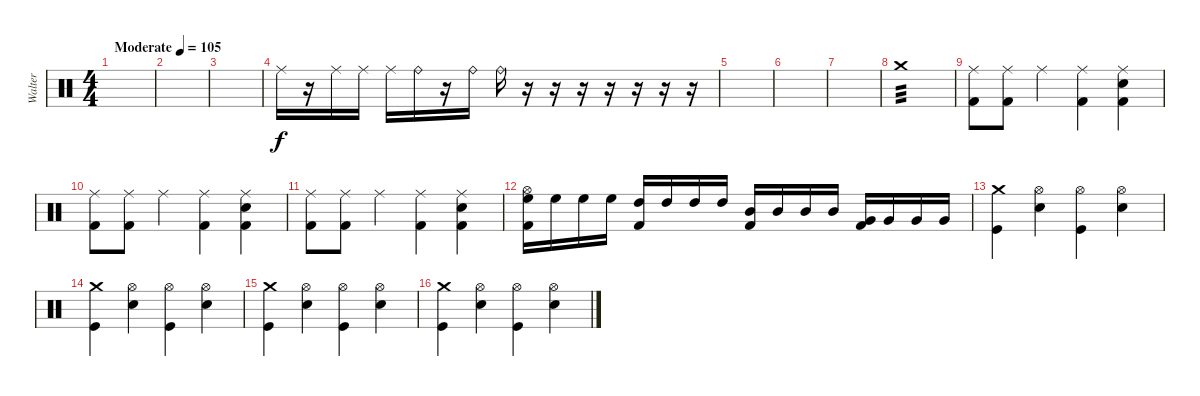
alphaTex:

\track ("Walter" "Walter") {instrument percussion}
\staff {score}
\articulation defaults
\ts (4 4)
\tempo (105 "Moderate")
\clef neutral
\ks c
|
|
|
"Ride (middle)".16 r.16 "Ride (middle)".16 "Ride (middle)".16 "Ride (middle)".16 "Ride (bell)".16 r.16 "Ride (bell)".16 "Ride (bell)".16 r.16 r.16 r.16 r.16 r.16 r.16 r.16 |
|
|
|
"Crash medium (hit)".1{tp 3} |
("Ride (middle)" "Kick (hit) 2").8 ("Ride (middle)" "Kick (hit) 2").8 "Ride (middle)".4 ("Ride (middle)" "Kick (hit) 2").4 ("Ride (middle)" "Electric Snare (hit)" "Kick (hit) 2").4 |
("Ride (middle)" "Kick (hit) 2").8 ("Ride (middle)" "Kick (hit) 2").8 "Ride (middle)".4 ("Ride (middle)" "Kick (hit) 2").4 ("Ride (middle)" "Electric Snare (hit)" "Kick (hit) 2").4 |
("Ride (middle)" "Kick (hit) 2").8 ("Ride (middle)" "Kick (hit) 2").8 "Ride (middle)".4 ("Ride (middle)" "Kick (hit) 2").4 ("Ride (middle)" "Electric Snare (hit)" "Kick (hit) 2").4 |
("Hi-Hat (open)" "High Floor Tom (hit)" "Kick (hit) 2").16 "High Floor Tom (hit)".16 "High Floor Tom (hit)".16 "High Floor Tom (hit)".16 ("High Tom (hit)" "Kick (hit) 2").16 "High Tom (hit)".16 "High Tom (hit)".16 "High Tom (hit)".16 ("Mid Tom (hit)" "Kick (hit) 2").16 "Mid Tom (hit)".16 "Mid Tom (hit)".16 "Mid Tom (hit)".16 ("Very Low Tom (hit)" "Kick (hit) 2").16 "Very Low Tom (hit)".16 "Very Low Tom (hit)".16 "Very Low Tom (hit)".16 |
("Kick (hit)" "Crash medium (hit)").4 ("Snare (hit) 2" "Hi-Hat (open)").4 ("Kick (hit)" "Hi-Hat (open)").4 ("Snare (hit) 2" "Hi-Hat (open)").4 |
("Kick (hit)" "Crash medium (hit)").4 ("Snare (hit) 2" "Hi-Hat (open)").4 ("Kick (hit)" "Hi-Hat (open)").4 ("Snare (hit) 2" "Hi-Hat (open)").4 |
("Kick (hit)" "Crash medium (hit)").4 ("Snare (hit) 2" "Hi-Hat (open)").4 ("Kick (hit)" "Hi-Hat (open)").4 ("Snare (hit) 2" "Hi-Hat (open)").4 |
("Kick (hit)" "Crash medium (hit)").4 ("Snare (hit) 2" "Hi-Hat (open)").4 ("Kick (hit)" "Hi-Hat (open)").4 ("Snare (hit) 2" "Hi-Hat (open)").4
